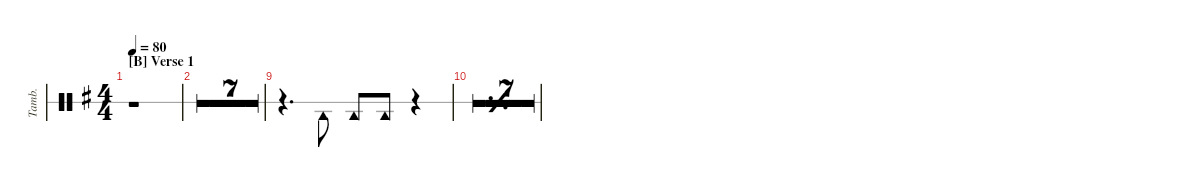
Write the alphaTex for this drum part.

\hideDynamics
\bracketExtendMode nobrackets
\otherSystemsTrackNameOrientation horizontal
\track ("Tambourine" "Tamb.") {multiBarRest instrument percussion}
\staff {score 1}
\articulation defaults
\ts (4 4)
\section ("B" "Verse 1")
\tempo 80
\clef neutral
\ks g
r.1{dy mf beam Down} |
r.1{beam Down} |
r.1{beam Down} |
r.1{beam Down} |
r.1{beam Down} |
r.1{beam Down} |
r.1{beam Down} |
r.1{beam Down} |
r.4{d beam Down} "Tambourine (hit)"{acc forcenatural}.8{beam Down} "Tambourine (hit)"{acc forcenatural}.8{beam Up} "Tambourine (hit)"{acc forcenatural}.8{beam Up} r.4{beam Up} |
\simile simple
|
\simile firstofdouble
|
\simile secondofdouble
|
\simile firstofdouble
|
\simile secondofdouble
|
\simile simple
|
\simile none
r.1{beam Down}
